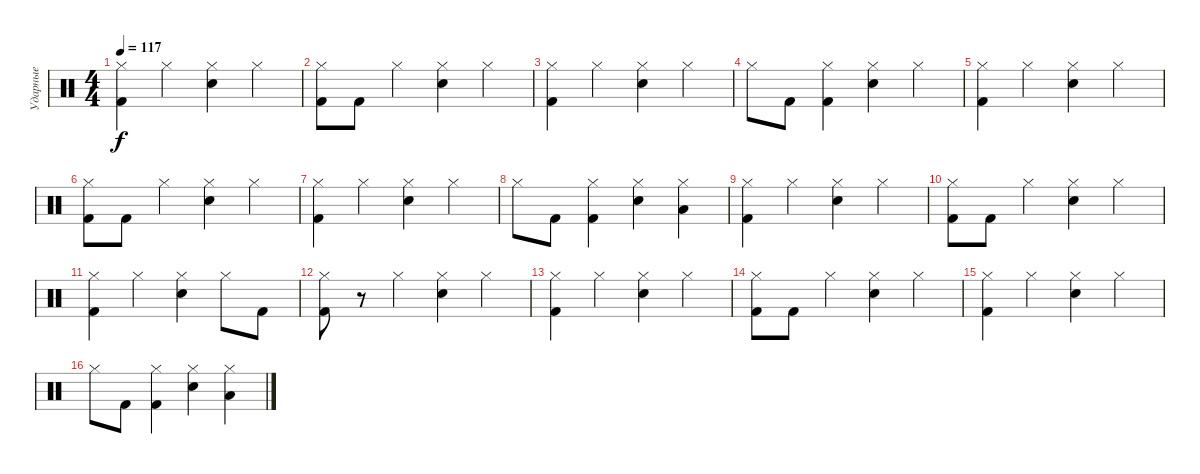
\track ("Ударные" "Ударные") {instrument percussion}
\staff {score}
\articulation defaults
\ts (4 4)
\tempo 117
\clef neutral
\ks c
("Hi-Hat (closed)" "Kick (hit) 2").4{dy f} "Hi-Hat (closed)".4 ("Hi-Hat (closed)" "Electric Snare (hit)").4 "Hi-Hat (closed)".4 |
("Hi-Hat (closed)" "Kick (hit) 2").8 "Kick (hit) 2".8 "Hi-Hat (closed)".4 ("Hi-Hat (closed)" "Electric Snare (hit)").4 "Hi-Hat (closed)".4 |
("Hi-Hat (closed)" "Kick (hit) 2").4 "Hi-Hat (closed)".4 ("Hi-Hat (closed)" "Electric Snare (hit)").4 "Hi-Hat (closed)".4 |
"Hi-Hat (closed)".8 "Kick (hit) 2".8 ("Hi-Hat (closed)" "Kick (hit) 2").4 ("Hi-Hat (closed)" "Electric Snare (hit)").4 "Hi-Hat (closed)".4 |
("Hi-Hat (closed)" "Kick (hit) 2").4 "Hi-Hat (closed)".4 ("Hi-Hat (closed)" "Electric Snare (hit)").4 "Hi-Hat (closed)".4 |
("Hi-Hat (closed)" "Kick (hit) 2").8 "Kick (hit) 2".8 "Hi-Hat (closed)".4 ("Hi-Hat (closed)" "Electric Snare (hit)").4 "Hi-Hat (closed)".4 |
("Hi-Hat (closed)" "Kick (hit) 2").4 "Hi-Hat (closed)".4 ("Hi-Hat (closed)" "Electric Snare (hit)").4 "Hi-Hat (closed)".4 |
"Hi-Hat (closed)".8 "Kick (hit) 2".8 ("Hi-Hat (closed)" "Kick (hit) 2").4 ("Hi-Hat (closed)" "Electric Snare (hit)").4 ("Hi-Hat (closed)" "Low Floor Tom (hit)").4 |
("Hi-Hat (closed)" "Kick (hit) 2").4 "Hi-Hat (closed)".4 ("Hi-Hat (closed)" "Electric Snare (hit)").4 "Hi-Hat (closed)".4 |
("Hi-Hat (closed)" "Kick (hit) 2").8 "Kick (hit) 2".8 "Hi-Hat (closed)".4 ("Hi-Hat (closed)" "Electric Snare (hit)").4 "Hi-Hat (closed)".4 |
("Hi-Hat (closed)" "Kick (hit) 2").4 "Hi-Hat (closed)".4 ("Hi-Hat (closed)" "Electric Snare (hit)").4 "Hi-Hat (closed)".8 "Kick (hit) 2".8 |
("Hi-Hat (closed)" "Kick (hit) 2").8 r.8 "Hi-Hat (closed)".4 ("Hi-Hat (closed)" "Electric Snare (hit)").4 "Hi-Hat (closed)".4 |
("Hi-Hat (closed)" "Kick (hit) 2").4 "Hi-Hat (closed)".4 ("Hi-Hat (closed)" "Electric Snare (hit)").4 "Hi-Hat (closed)".4 |
("Hi-Hat (closed)" "Kick (hit) 2").8 "Kick (hit) 2".8 "Hi-Hat (closed)".4 ("Hi-Hat (closed)" "Electric Snare (hit)").4 "Hi-Hat (closed)".4 |
("Hi-Hat (closed)" "Kick (hit) 2").4 "Hi-Hat (closed)".4 ("Hi-Hat (closed)" "Electric Snare (hit)").4 "Hi-Hat (closed)".4 |
"Hi-Hat (closed)".8 "Kick (hit) 2".8 ("Hi-Hat (closed)" "Kick (hit) 2").4 ("Hi-Hat (closed)" "Electric Snare (hit)").4 ("Hi-Hat (closed)" "Low Floor Tom (hit)").4
